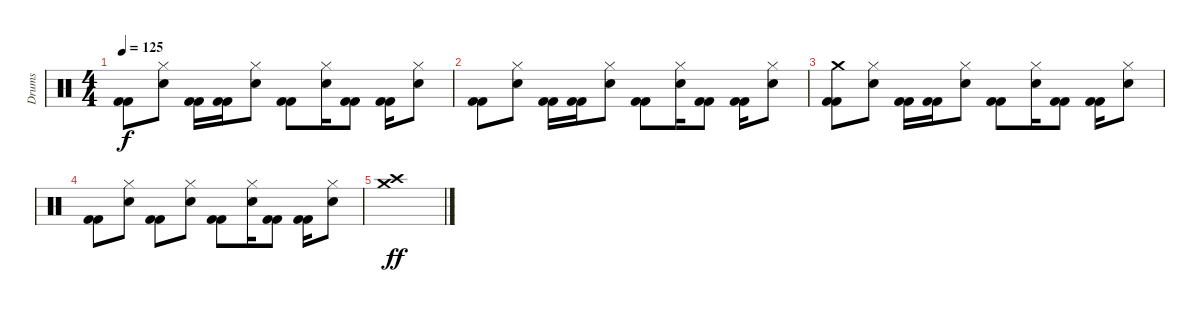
\track ("Drums" "Drums") {instrument percussion}
\staff {score}
\articulation defaults
\ts (4 4)
\tempo 125
\clef neutral
\ks c
("Kick (hit) 2" "Kick (hit) 2").8{dy f} ("Hi-Hat (closed)" "Electric Snare (hit)").8 ("Kick (hit) 2" "Kick (hit) 2").16 ("Kick (hit) 2" "Kick (hit) 2").16 ("Hi-Hat (closed)" "Electric Snare (hit)").8 ("Kick (hit) 2" "Kick (hit) 2").8 ("Hi-Hat (closed)" "Electric Snare (hit)").16 ("Kick (hit) 2" "Kick (hit) 2").8 ("Kick (hit) 2" "Kick (hit) 2").16 ("Hi-Hat (closed)" "Electric Snare (hit)").8 |
("Kick (hit) 2" "Kick (hit) 2").8 ("Hi-Hat (closed)" "Electric Snare (hit)").8 ("Kick (hit) 2" "Kick (hit) 2").16 ("Kick (hit) 2" "Kick (hit) 2").16 ("Hi-Hat (closed)" "Electric Snare (hit)").8 ("Kick (hit) 2" "Kick (hit) 2").8 ("Hi-Hat (closed)" "Electric Snare (hit)").16 ("Kick (hit) 2" "Kick (hit) 2").8 ("Kick (hit) 2" "Kick (hit) 2").16 ("Hi-Hat (closed)" "Electric Snare (hit)").8 |
("Crash medium (hit)" "Kick (hit) 2" "Kick (hit) 2").8 ("Hi-Hat (closed)" "Electric Snare (hit)").8 ("Kick (hit) 2" "Kick (hit) 2").16 ("Kick (hit) 2" "Kick (hit) 2").16 ("Hi-Hat (closed)" "Electric Snare (hit)").8 ("Kick (hit) 2" "Kick (hit) 2").8 ("Hi-Hat (closed)" "Electric Snare (hit)").16 ("Kick (hit) 2" "Kick (hit) 2").8 ("Kick (hit) 2" "Kick (hit) 2").16 ("Hi-Hat (closed)" "Electric Snare (hit)").8 |
("Kick (hit) 2" "Kick (hit) 2").8 ("Hi-Hat (closed)" "Electric Snare (hit)").8 ("Kick (hit) 2" "Kick (hit) 2").8 ("Hi-Hat (closed)" "Electric Snare (hit)").8 ("Kick (hit) 2" "Kick (hit) 2").8 ("Hi-Hat (closed)" "Electric Snare (hit)").16 ("Kick (hit) 2" "Kick (hit) 2").8 ("Kick (hit) 2" "Kick (hit) 2").16 ("Hi-Hat (closed)" "Electric Snare (hit)").8 |
("Crash high (hit)" "Crash medium (hit)").1{dy ff}
